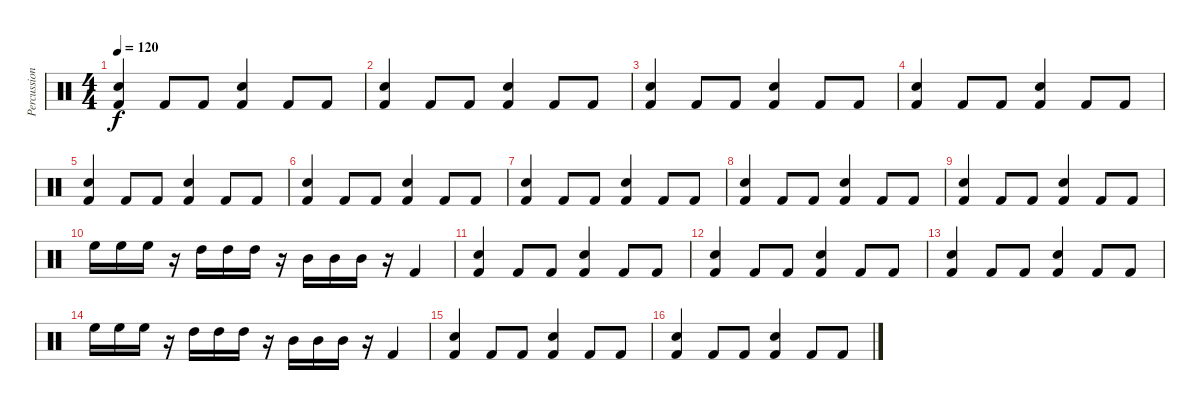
\track ("Percussions" "Percussion") {instrument percussion}
\staff {score}
\articulation defaults
\ts (4 4)
\tempo 120
\clef neutral
\ks c
("Snare (hit) 2" "Kick (hit) 2").4{dy f} "Kick (hit) 2".8 "Kick (hit) 2".8 ("Snare (hit) 2" "Kick (hit) 2").4 "Kick (hit) 2".8 "Kick (hit) 2".8 |
("Snare (hit) 2" "Kick (hit) 2").4 "Kick (hit) 2".8 "Kick (hit) 2".8 ("Snare (hit) 2" "Kick (hit) 2").4 "Kick (hit) 2".8 "Kick (hit) 2".8 |
("Snare (hit) 2" "Kick (hit) 2").4 "Kick (hit) 2".8 "Kick (hit) 2".8 ("Snare (hit) 2" "Kick (hit) 2").4 "Kick (hit) 2".8 "Kick (hit) 2".8 |
("Snare (hit) 2" "Kick (hit) 2").4 "Kick (hit) 2".8 "Kick (hit) 2".8 ("Snare (hit) 2" "Kick (hit) 2").4 "Kick (hit) 2".8 "Kick (hit) 2".8 |
("Snare (hit) 2" "Kick (hit) 2").4 "Kick (hit) 2".8 "Kick (hit) 2".8 ("Snare (hit) 2" "Kick (hit) 2").4 "Kick (hit) 2".8 "Kick (hit) 2".8 |
("Snare (hit) 2" "Kick (hit) 2").4 "Kick (hit) 2".8 "Kick (hit) 2".8 ("Snare (hit) 2" "Kick (hit) 2").4 "Kick (hit) 2".8 "Kick (hit) 2".8 |
("Snare (hit) 2" "Kick (hit) 2").4 "Kick (hit) 2".8 "Kick (hit) 2".8 ("Snare (hit) 2" "Kick (hit) 2").4 "Kick (hit) 2".8 "Kick (hit) 2".8 |
("Snare (hit) 2" "Kick (hit) 2").4 "Kick (hit) 2".8 "Kick (hit) 2".8 ("Snare (hit) 2" "Kick (hit) 2").4 "Kick (hit) 2".8 "Kick (hit) 2".8 |
("Snare (hit) 2" "Kick (hit) 2").4 "Kick (hit) 2".8 "Kick (hit) 2".8 ("Snare (hit) 2" "Kick (hit) 2").4 "Kick (hit) 2".8 "Kick (hit) 2".8 |
"High Floor Tom (hit)".16 "High Floor Tom (hit)".16 "High Floor Tom (hit)".16 r.16 "High Tom (hit)".16 "High Tom (hit)".16 "High Tom (hit)".16 r.16 "Mid Tom (hit)".16 "Mid Tom (hit)".16 "Mid Tom (hit)".16 r.16 "Kick (hit) 2".4 |
("Snare (hit) 2" "Kick (hit) 2").4 "Kick (hit) 2".8 "Kick (hit) 2".8 ("Snare (hit) 2" "Kick (hit) 2").4 "Kick (hit) 2".8 "Kick (hit) 2".8 |
("Snare (hit) 2" "Kick (hit) 2").4 "Kick (hit) 2".8 "Kick (hit) 2".8 ("Snare (hit) 2" "Kick (hit) 2").4 "Kick (hit) 2".8 "Kick (hit) 2".8 |
("Snare (hit) 2" "Kick (hit) 2").4 "Kick (hit) 2".8 "Kick (hit) 2".8 ("Snare (hit) 2" "Kick (hit) 2").4 "Kick (hit) 2".8 "Kick (hit) 2".8 |
"High Floor Tom (hit)".16 "High Floor Tom (hit)".16 "High Floor Tom (hit)".16 r.16 "High Tom (hit)".16 "High Tom (hit)".16 "High Tom (hit)".16 r.16 "Mid Tom (hit)".16 "Mid Tom (hit)".16 "Mid Tom (hit)".16 r.16 "Kick (hit) 2".4 |
("Snare (hit) 2" "Kick (hit) 2").4 "Kick (hit) 2".8 "Kick (hit) 2".8 ("Snare (hit) 2" "Kick (hit) 2").4 "Kick (hit) 2".8 "Kick (hit) 2".8 |
("Snare (hit) 2" "Kick (hit) 2").4 "Kick (hit) 2".8 "Kick (hit) 2".8 ("Snare (hit) 2" "Kick (hit) 2").4 "Kick (hit) 2".8 "Kick (hit) 2".8
